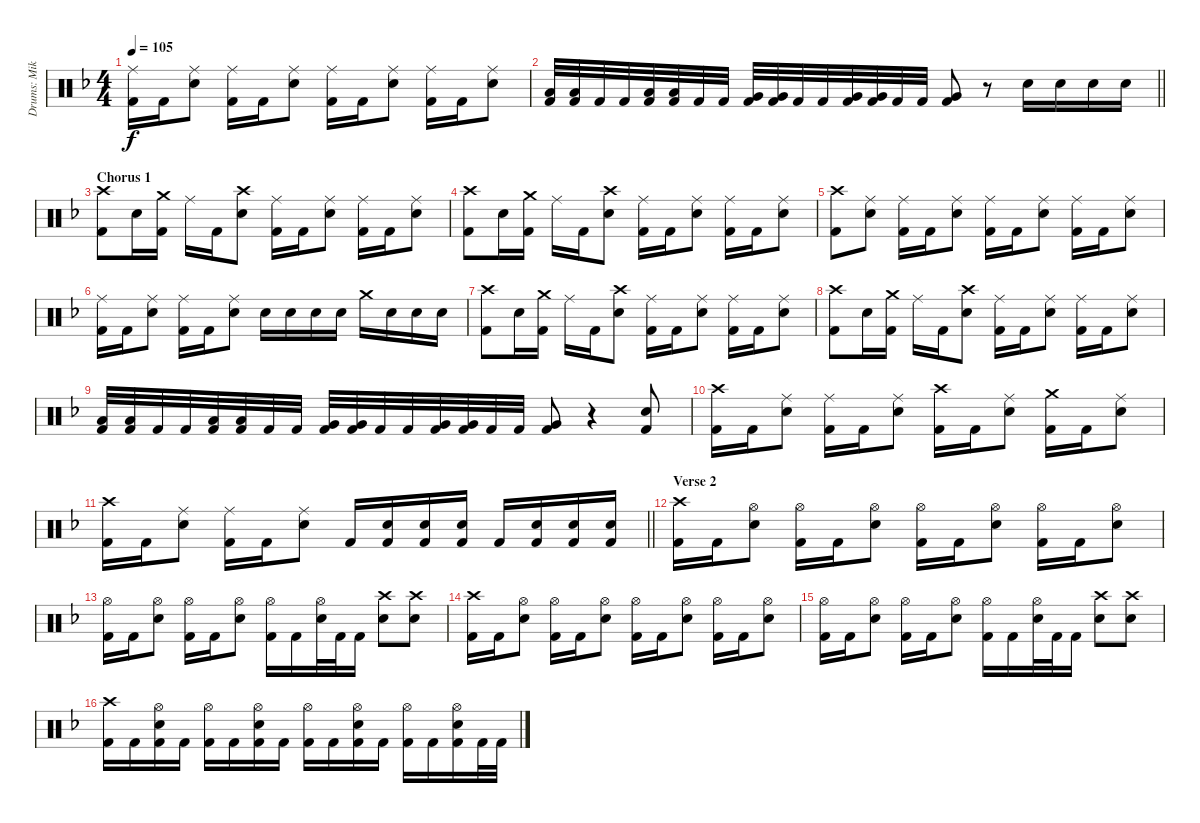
\track ("Drums: Mikko Korsbäck" "Drums: Mik") {instrument percussion}
\staff {score}
\articulation defaults
\ts (4 4)
\tempo 105
\clef neutral
\ks dminor
("Ride (middle)" "Kick (hit) 2").16{dy f} "Kick (hit) 2".16 ("Ride (middle)" "Electric Snare (hit)").8 ("Ride (middle)" "Kick (hit) 2").16 "Kick (hit) 2".16 ("Ride (middle)" "Electric Snare (hit)").8 ("Ride (middle)" "Kick (hit) 2").16 "Kick (hit) 2".16 ("Ride (middle)" "Electric Snare (hit)").8 ("Ride (middle)" "Kick (hit) 2").16 "Kick (hit) 2".16 ("Ride (middle)" "Electric Snare (hit)").8 |
\barLineRight lightlight
("Low Tom (hit)" "Kick (hit) 2").32 ("Low Tom (hit)" "Kick (hit) 2").32 "Kick (hit) 2".32 "Kick (hit) 2".32 ("Low Tom (hit)" "Kick (hit) 2").32 ("Low Tom (hit)" "Kick (hit) 2").32 "Kick (hit) 2".32 "Kick (hit) 2".32 ("Very Low Tom (hit)" "Kick (hit) 2").32 ("Very Low Tom (hit)" "Kick (hit) 2").32 "Kick (hit) 2".32 "Kick (hit) 2".32 ("Very Low Tom (hit)" "Kick (hit) 2").32 ("Very Low Tom (hit)" "Kick (hit) 2").32 "Kick (hit) 2".32 "Kick (hit) 2".32 ("Very Low Tom (hit)" "Kick (hit) 2").8 r.8 "Electric Snare (hit)".16 "Electric Snare (hit)".16 "Electric Snare (hit)".16 "Electric Snare (hit)".16 |
\section ("" "Chorus 1")
("Crash high (hit)" "Kick (hit) 2").8 "Electric Snare (hit)".16 ("Crash medium (hit)" "Kick (hit) 2").16 "Ride (middle)".16 "Kick (hit) 2".16 ("Crash high (hit)" "Electric Snare (hit)").8 ("Ride (middle)" "Kick (hit) 2").16 "Kick (hit) 2".16 ("Ride (middle)" "Electric Snare (hit)").8 ("Ride (middle)" "Kick (hit) 2").16 "Kick (hit) 2".16 ("Ride (middle)" "Electric Snare (hit)").8 |
("Crash high (hit)" "Kick (hit) 2").8 "Electric Snare (hit)".16 ("Crash medium (hit)" "Kick (hit) 2").16 "Ride (middle)".16 "Kick (hit) 2".16 ("Crash high (hit)" "Electric Snare (hit)").8 ("Ride (middle)" "Kick (hit) 2").16 "Kick (hit) 2".16 ("Ride (middle)" "Electric Snare (hit)").8 ("Ride (middle)" "Kick (hit) 2").16 "Kick (hit) 2".16 ("Ride (middle)" "Electric Snare (hit)").8 |
("Crash high (hit)" "Kick (hit) 2").8 ("Ride (middle)" "Electric Snare (hit)").8 ("Ride (middle)" "Kick (hit) 2").16 "Kick (hit) 2".16 ("Ride (middle)" "Electric Snare (hit)").8 ("Ride (middle)" "Kick (hit) 2").16 "Kick (hit) 2".16 ("Ride (middle)" "Electric Snare (hit)").8 ("Ride (middle)" "Kick (hit) 2").16 "Kick (hit) 2".16 ("Ride (middle)" "Electric Snare (hit)").8 |
("Ride (middle)" "Kick (hit) 2").16 "Kick (hit) 2".16 ("Ride (middle)" "Electric Snare (hit)").8 ("Ride (middle)" "Kick (hit) 2").16 "Kick (hit) 2".16 ("Ride (middle)" "Electric Snare (hit)").8 "Electric Snare (hit)".16 "Electric Snare (hit)".16 "Electric Snare (hit)".16 "Electric Snare (hit)".16 "Crash medium (hit)".16 "Electric Snare (hit)".16 "Electric Snare (hit)".16 "Electric Snare (hit)".16 |
("Crash high (hit)" "Kick (hit) 2").8 "Electric Snare (hit)".16 ("Crash medium (hit)" "Kick (hit) 2").16 "Ride (middle)".16 "Kick (hit) 2".16 ("Crash high (hit)" "Electric Snare (hit)").8 ("Ride (middle)" "Kick (hit) 2").16 "Kick (hit) 2".16 ("Ride (middle)" "Electric Snare (hit)").8 ("Ride (middle)" "Kick (hit) 2").16 "Kick (hit) 2".16 ("Ride (middle)" "Electric Snare (hit)").8 |
("Crash high (hit)" "Kick (hit) 2").8 "Electric Snare (hit)".16 ("Crash medium (hit)" "Kick (hit) 2").16 "Ride (middle)".16 "Kick (hit) 2".16 ("Crash high (hit)" "Electric Snare (hit)").8 ("Ride (middle)" "Kick (hit) 2").16 "Kick (hit) 2".16 ("Ride (middle)" "Electric Snare (hit)").8 ("Ride (middle)" "Kick (hit) 2").16 "Kick (hit) 2".16 ("Ride (middle)" "Electric Snare (hit)").8 |
("Low Tom (hit)" "Kick (hit) 2").32 ("Low Tom (hit)" "Kick (hit) 2").32 "Kick (hit) 2".32 "Kick (hit) 2".32 ("Low Tom (hit)" "Kick (hit) 2").32 ("Low Tom (hit)" "Kick (hit) 2").32 "Kick (hit) 2".32 "Kick (hit) 2".32 ("Very Low Tom (hit)" "Kick (hit) 2").32 ("Very Low Tom (hit)" "Kick (hit) 2").32 "Kick (hit) 2".32 "Kick (hit) 2".32 ("Very Low Tom (hit)" "Kick (hit) 2").32 ("Very Low Tom (hit)" "Kick (hit) 2").32 "Kick (hit) 2".32 "Kick (hit) 2".32 ("Very Low Tom (hit)" "Kick (hit) 2").8 r.4 ("Electric Snare (hit)" "Kick (hit) 2").8 |
("Crash high (hit)" "Kick (hit) 2").16 "Kick (hit) 2".16 ("Ride (middle)" "Electric Snare (hit)").8 ("Ride (middle)" "Kick (hit) 2").16 "Kick (hit) 2".16 ("Ride (middle)" "Electric Snare (hit)").8 ("Crash high (hit)" "Kick (hit) 2").16 "Kick (hit) 2".16 ("Ride (middle)" "Electric Snare (hit)").8 ("Crash medium (hit)" "Kick (hit) 2").16 "Kick (hit) 2".16 ("Ride (middle)" "Electric Snare (hit)").8 |
\barLineRight lightlight
("Crash high (hit)" "Kick (hit) 2").16 "Kick (hit) 2".16 ("Ride (middle)" "Electric Snare (hit)").8 ("Ride (middle)" "Kick (hit) 2").16 "Kick (hit) 2".16 ("Ride (middle)" "Electric Snare (hit)").8 "Kick (hit) 2".16 ("Electric Snare (hit)" "Kick (hit) 2").16 ("Electric Snare (hit)" "Kick (hit) 2").16 ("Electric Snare (hit)" "Kick (hit) 2").16 "Kick (hit) 2".16 ("Electric Snare (hit)" "Kick (hit) 2").16 ("Electric Snare (hit)" "Kick (hit) 2").16 ("Electric Snare (hit)" "Kick (hit) 2").16 |
\section ("" "Verse 2")
("Crash high (hit)" "Kick (hit) 2").16 "Kick (hit) 2".16 ("Hi-Hat (open)" "Electric Snare (hit)").8 ("Hi-Hat (open)" "Kick (hit) 2").16 "Kick (hit) 2".16 ("Hi-Hat (open)" "Electric Snare (hit)").8 ("Hi-Hat (open)" "Kick (hit) 2").16 "Kick (hit) 2".16 ("Hi-Hat (open)" "Electric Snare (hit)").8 ("Hi-Hat (open)" "Kick (hit) 2").16 "Kick (hit) 2".16 ("Hi-Hat (open)" "Electric Snare (hit)").8 |
("Hi-Hat (open)" "Kick (hit) 2").16 "Kick (hit) 2".16 ("Hi-Hat (open)" "Electric Snare (hit)").8 ("Hi-Hat (open)" "Kick (hit) 2").16 "Kick (hit) 2".16 ("Hi-Hat (open)" "Electric Snare (hit)").8 ("Hi-Hat (open)" "Kick (hit) 2").16 "Kick (hit) 2".16 ("Hi-Hat (open)" "Electric Snare (hit)").32 "Kick (hit) 2".32 "Kick (hit) 2".16 ("Crash high (hit)" "Electric Snare (hit)").8 ("Crash high (hit)" "Electric Snare (hit)").8 |
("Crash high (hit)" "Kick (hit) 2").16 "Kick (hit) 2".16 ("Hi-Hat (open)" "Electric Snare (hit)").8 ("Hi-Hat (open)" "Kick (hit) 2").16 "Kick (hit) 2".16 ("Hi-Hat (open)" "Electric Snare (hit)").8 ("Hi-Hat (open)" "Kick (hit) 2").16 "Kick (hit) 2".16 ("Hi-Hat (open)" "Electric Snare (hit)").8 ("Hi-Hat (open)" "Kick (hit) 2").16 "Kick (hit) 2".16 ("Hi-Hat (open)" "Electric Snare (hit)").8 |
("Hi-Hat (open)" "Kick (hit) 2").16 "Kick (hit) 2".16 ("Hi-Hat (open)" "Electric Snare (hit)").8 ("Hi-Hat (open)" "Kick (hit) 2").16 "Kick (hit) 2".16 ("Hi-Hat (open)" "Electric Snare (hit)").8 ("Hi-Hat (open)" "Kick (hit) 2").16 "Kick (hit) 2".16 ("Hi-Hat (open)" "Electric Snare (hit)").32 "Kick (hit) 2".32 "Kick (hit) 2".16 ("Crash high (hit)" "Electric Snare (hit)").8 ("Crash high (hit)" "Electric Snare (hit)").8 |
("Crash high (hit)" "Kick (hit) 2").16 "Kick (hit) 2".16 ("Hi-Hat (open)" "Electric Snare (hit)" "Kick (hit) 2").16 "Kick (hit) 2".16 ("Hi-Hat (open)" "Kick (hit) 2").16 "Kick (hit) 2".16 ("Hi-Hat (open)" "Electric Snare (hit)" "Kick (hit) 2").16 "Kick (hit) 2".16 ("Hi-Hat (open)" "Kick (hit) 2").16 "Kick (hit) 2".16 ("Hi-Hat (open)" "Electric Snare (hit)" "Kick (hit) 2").16 "Kick (hit) 2".16 ("Hi-Hat (open)" "Kick (hit) 2").16 "Kick (hit) 2".16 ("Hi-Hat (open)" "Electric Snare (hit)" "Kick (hit) 2").16 "Kick (hit) 2".32 "Kick (hit) 2".32
